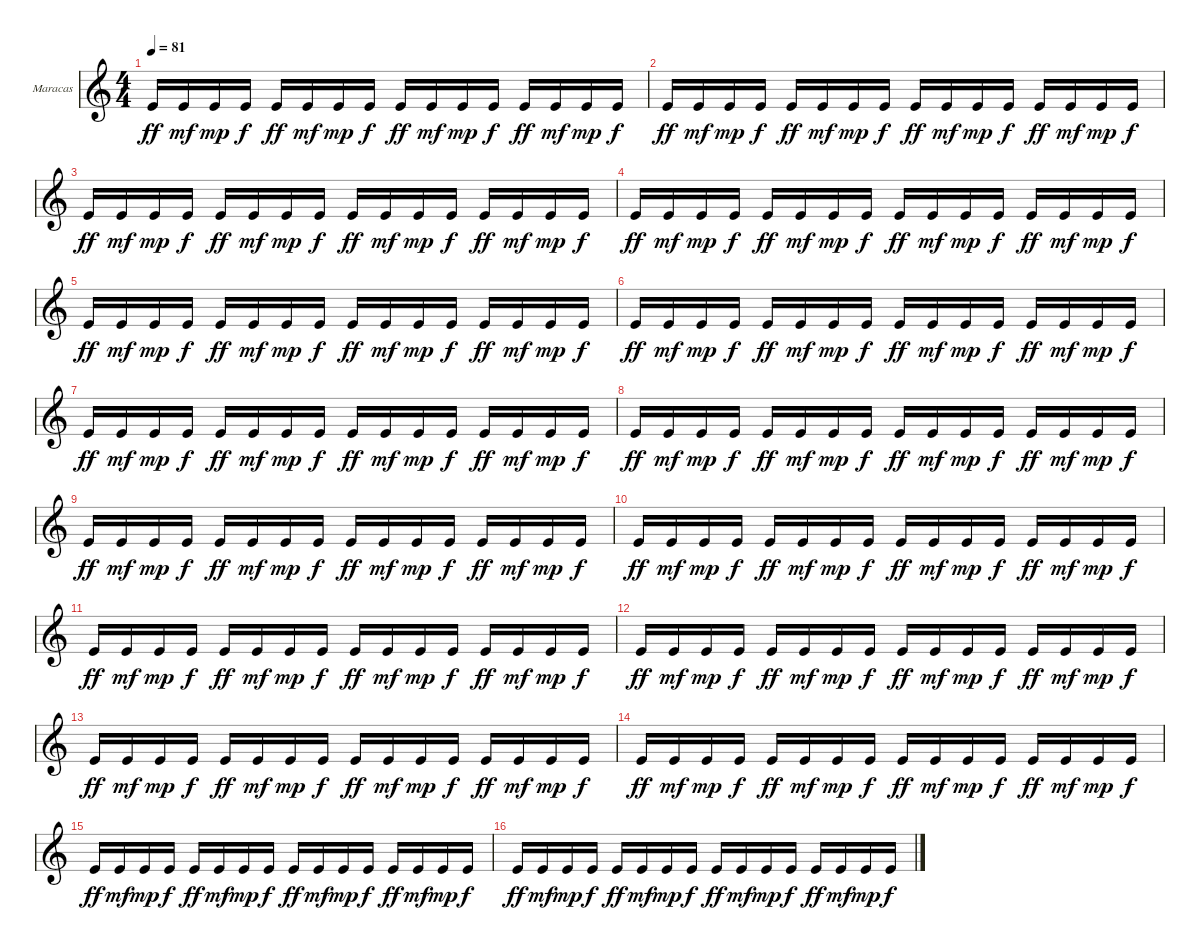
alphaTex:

\bracketExtendMode groupsimilarinstruments
\firstSystemTrackNameOrientation horizontal
\otherSystemsTrackNameOrientation horizontal
\track ("Maracas" "Maracas") {instrument percussion}
\staff {score}
\articulation defaults
\ts (4 4)
\tempo 81
\clef g2
\ks c "Kick (hit)".16{dy ff} "Kick (hit)".16{dy mf} "Kick (hit)".16{dy mp} "Kick (hit)".16{dy f} "Kick (hit)".16{dy ff} "Kick (hit)".16{dy mf} "Kick (hit)".16{dy mp} "Kick (hit)".16{dy f} "Kick (hit)".16{dy ff} "Kick (hit)".16{dy mf} "Kick (hit)".16{dy mp} "Kick (hit)".16{dy f} "Kick (hit)".16{dy ff} "Kick (hit)".16{dy mf} "Kick (hit)".16{dy mp} "Kick (hit)".16{dy f}
|
"Kick (hit)".16{dy ff} "Kick (hit)".16{dy mf} "Kick (hit)".16{dy mp} "Kick (hit)".16{dy f} "Kick (hit)".16{dy ff} "Kick (hit)".16{dy mf} "Kick (hit)".16{dy mp} "Kick (hit)".16{dy f} "Kick (hit)".16{dy ff} "Kick (hit)".16{dy mf} "Kick (hit)".16{dy mp} "Kick (hit)".16{dy f} "Kick (hit)".16{dy ff} "Kick (hit)".16{dy mf} "Kick (hit)".16{dy mp} "Kick (hit)".16{dy f} |
"Kick (hit)".16{dy ff} "Kick (hit)".16{dy mf} "Kick (hit)".16{dy mp} "Kick (hit)".16{dy f} "Kick (hit)".16{dy ff} "Kick (hit)".16{dy mf} "Kick (hit)".16{dy mp} "Kick (hit)".16{dy f} "Kick (hit)".16{dy ff} "Kick (hit)".16{dy mf} "Kick (hit)".16{dy mp} "Kick (hit)".16{dy f} "Kick (hit)".16{dy ff} "Kick (hit)".16{dy mf} "Kick (hit)".16{dy mp} "Kick (hit)".16{dy f} |
"Kick (hit)".16{dy ff} "Kick (hit)".16{dy mf} "Kick (hit)".16{dy mp} "Kick (hit)".16{dy f} "Kick (hit)".16{dy ff} "Kick (hit)".16{dy mf} "Kick (hit)".16{dy mp} "Kick (hit)".16{dy f} "Kick (hit)".16{dy ff} "Kick (hit)".16{dy mf} "Kick (hit)".16{dy mp} "Kick (hit)".16{dy f} "Kick (hit)".16{dy ff} "Kick (hit)".16{dy mf} "Kick (hit)".16{dy mp} "Kick (hit)".16{dy f} |
"Kick (hit)".16{dy ff} "Kick (hit)".16{dy mf} "Kick (hit)".16{dy mp} "Kick (hit)".16{dy f} "Kick (hit)".16{dy ff} "Kick (hit)".16{dy mf} "Kick (hit)".16{dy mp} "Kick (hit)".16{dy f} "Kick (hit)".16{dy ff} "Kick (hit)".16{dy mf} "Kick (hit)".16{dy mp} "Kick (hit)".16{dy f} "Kick (hit)".16{dy ff} "Kick (hit)".16{dy mf} "Kick (hit)".16{dy mp} "Kick (hit)".16{dy f} |
"Kick (hit)".16{dy ff} "Kick (hit)".16{dy mf} "Kick (hit)".16{dy mp} "Kick (hit)".16{dy f} "Kick (hit)".16{dy ff} "Kick (hit)".16{dy mf} "Kick (hit)".16{dy mp} "Kick (hit)".16{dy f} "Kick (hit)".16{dy ff} "Kick (hit)".16{dy mf} "Kick (hit)".16{dy mp} "Kick (hit)".16{dy f} "Kick (hit)".16{dy ff} "Kick (hit)".16{dy mf} "Kick (hit)".16{dy mp} "Kick (hit)".16{dy f} |
"Kick (hit)".16{dy ff} "Kick (hit)".16{dy mf} "Kick (hit)".16{dy mp} "Kick (hit)".16{dy f} "Kick (hit)".16{dy ff} "Kick (hit)".16{dy mf} "Kick (hit)".16{dy mp} "Kick (hit)".16{dy f} "Kick (hit)".16{dy ff} "Kick (hit)".16{dy mf} "Kick (hit)".16{dy mp} "Kick (hit)".16{dy f} "Kick (hit)".16{dy ff} "Kick (hit)".16{dy mf} "Kick (hit)".16{dy mp} "Kick (hit)".16{dy f} |
"Kick (hit)".16{dy ff} "Kick (hit)".16{dy mf} "Kick (hit)".16{dy mp} "Kick (hit)".16{dy f} "Kick (hit)".16{dy ff} "Kick (hit)".16{dy mf} "Kick (hit)".16{dy mp} "Kick (hit)".16{dy f} "Kick (hit)".16{dy ff} "Kick (hit)".16{dy mf} "Kick (hit)".16{dy mp} "Kick (hit)".16{dy f} "Kick (hit)".16{dy ff} "Kick (hit)".16{dy mf} "Kick (hit)".16{dy mp} "Kick (hit)".16{dy f} |
"Kick (hit)".16{dy ff} "Kick (hit)".16{dy mf} "Kick (hit)".16{dy mp} "Kick (hit)".16{dy f} "Kick (hit)".16{dy ff} "Kick (hit)".16{dy mf} "Kick (hit)".16{dy mp} "Kick (hit)".16{dy f} "Kick (hit)".16{dy ff} "Kick (hit)".16{dy mf} "Kick (hit)".16{dy mp} "Kick (hit)".16{dy f} "Kick (hit)".16{dy ff} "Kick (hit)".16{dy mf} "Kick (hit)".16{dy mp} "Kick (hit)".16{dy f} |
"Kick (hit)".16{dy ff} "Kick (hit)".16{dy mf} "Kick (hit)".16{dy mp} "Kick (hit)".16{dy f} "Kick (hit)".16{dy ff} "Kick (hit)".16{dy mf} "Kick (hit)".16{dy mp} "Kick (hit)".16{dy f} "Kick (hit)".16{dy ff} "Kick (hit)".16{dy mf} "Kick (hit)".16{dy mp} "Kick (hit)".16{dy f} "Kick (hit)".16{dy ff} "Kick (hit)".16{dy mf} "Kick (hit)".16{dy mp} "Kick (hit)".16{dy f} |
"Kick (hit)".16{dy ff} "Kick (hit)".16{dy mf} "Kick (hit)".16{dy mp} "Kick (hit)".16{dy f} "Kick (hit)".16{dy ff} "Kick (hit)".16{dy mf} "Kick (hit)".16{dy mp} "Kick (hit)".16{dy f} "Kick (hit)".16{dy ff} "Kick (hit)".16{dy mf} "Kick (hit)".16{dy mp} "Kick (hit)".16{dy f} "Kick (hit)".16{dy ff} "Kick (hit)".16{dy mf} "Kick (hit)".16{dy mp} "Kick (hit)".16{dy f} |
"Kick (hit)".16{dy ff} "Kick (hit)".16{dy mf} "Kick (hit)".16{dy mp} "Kick (hit)".16{dy f} "Kick (hit)".16{dy ff} "Kick (hit)".16{dy mf} "Kick (hit)".16{dy mp} "Kick (hit)".16{dy f} "Kick (hit)".16{dy ff} "Kick (hit)".16{dy mf} "Kick (hit)".16{dy mp} "Kick (hit)".16{dy f} "Kick (hit)".16{dy ff} "Kick (hit)".16{dy mf} "Kick (hit)".16{dy mp} "Kick (hit)".16{dy f} |
"Kick (hit)".16{dy ff} "Kick (hit)".16{dy mf} "Kick (hit)".16{dy mp} "Kick (hit)".16{dy f} "Kick (hit)".16{dy ff} "Kick (hit)".16{dy mf} "Kick (hit)".16{dy mp} "Kick (hit)".16{dy f} "Kick (hit)".16{dy ff} "Kick (hit)".16{dy mf} "Kick (hit)".16{dy mp} "Kick (hit)".16{dy f} "Kick (hit)".16{dy ff} "Kick (hit)".16{dy mf} "Kick (hit)".16{dy mp} "Kick (hit)".16{dy f} |
"Kick (hit)".16{dy ff} "Kick (hit)".16{dy mf} "Kick (hit)".16{dy mp} "Kick (hit)".16{dy f} "Kick (hit)".16{dy ff} "Kick (hit)".16{dy mf} "Kick (hit)".16{dy mp} "Kick (hit)".16{dy f} "Kick (hit)".16{dy ff} "Kick (hit)".16{dy mf} "Kick (hit)".16{dy mp} "Kick (hit)".16{dy f} "Kick (hit)".16{dy ff} "Kick (hit)".16{dy mf} "Kick (hit)".16{dy mp} "Kick (hit)".16{dy f} |
"Kick (hit)".16{dy ff} "Kick (hit)".16{dy mf} "Kick (hit)".16{dy mp} "Kick (hit)".16{dy f} "Kick (hit)".16{dy ff} "Kick (hit)".16{dy mf} "Kick (hit)".16{dy mp} "Kick (hit)".16{dy f} "Kick (hit)".16{dy ff} "Kick (hit)".16{dy mf} "Kick (hit)".16{dy mp} "Kick (hit)".16{dy f} "Kick (hit)".16{dy ff} "Kick (hit)".16{dy mf} "Kick (hit)".16{dy mp} "Kick (hit)".16{dy f} |
"Kick (hit)".16{dy ff} "Kick (hit)".16{dy mf} "Kick (hit)".16{dy mp} "Kick (hit)".16{dy f} "Kick (hit)".16{dy ff} "Kick (hit)".16{dy mf} "Kick (hit)".16{dy mp} "Kick (hit)".16{dy f} "Kick (hit)".16{dy ff} "Kick (hit)".16{dy mf} "Kick (hit)".16{dy mp} "Kick (hit)".16{dy f} "Kick (hit)".16{dy ff} "Kick (hit)".16{dy mf} "Kick (hit)".16{dy mp} "Kick (hit)".16{dy f}
